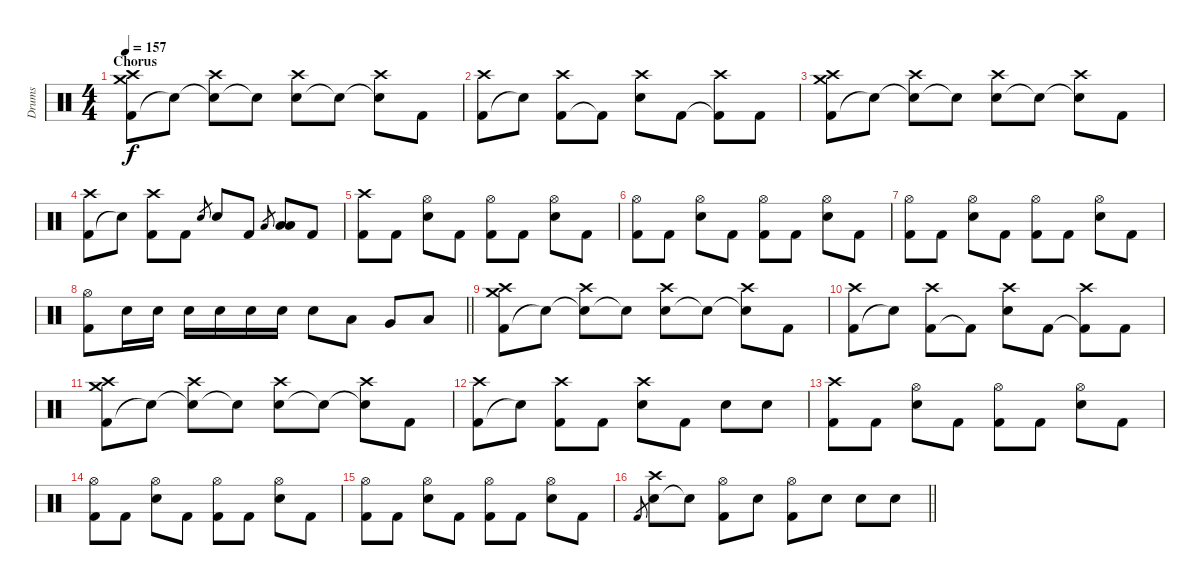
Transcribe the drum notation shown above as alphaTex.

\track ("Drums" "Drums") {instrument percussion}
\staff {score}
\articulation defaults
\ts (4 4)
\section ("" "Chorus")
\tempo 157
\clef neutral
\ks c
("Kick (hit) 2" "Crash medium (hit)" "Crash high (hit)").8{dy f} "Snare (hit)"{t}.8 ("Snare (hit)"{t} "Crash high (hit)").8 "Electric Snare (hit)"{t}.8 ("Electric Snare (hit)" "Crash high (hit)").8 "Snare (hit)"{t}.8 ("Snare (hit)"{t} "Crash high (hit)").8 "Kick (hit) 2".8 |
("Kick (hit) 2" "Crash high (hit)").8 "Snare (hit)"{t}.8 ("Kick (hit) 2" "Crash high (hit)").8 "Kick (hit) 2"{t}.8 ("Electric Snare (hit)" "Crash high (hit)").8 "Kick (hit) 2".8 ("Kick (hit) 2"{t} "Crash high (hit)").8 "Kick (hit) 2".8 |
("Kick (hit) 2" "Crash medium (hit)" "Crash high (hit)").8 "Snare (hit)"{t}.8 ("Snare (hit)"{t} "Crash high (hit)").8 "Electric Snare (hit)"{t}.8 ("Electric Snare (hit)" "Crash high (hit)").8 "Snare (hit)"{t}.8 ("Snare (hit)"{t} "Crash high (hit)").8 "Kick (hit) 2".8 |
("Kick (hit) 2" "Crash high (hit)").8 "Snare (hit)"{t}.8 ("Kick (hit) 2" "Crash high (hit)").8 "Kick (hit) 2".8 "Electric Snare (hit)".8{gr} "Electric Snare (hit)".8 "Kick (hit) 2".8 "Low Tom (hit)".8{gr} ("Low Tom (hit)" "Low Floor Tom (hit)").8 "Kick (hit) 2".8 |
("Kick (hit) 2" "Crash high (hit)").8 "Kick (hit) 2".8 ("Electric Snare (hit)" "Hi-Hat (open)").8 "Kick (hit) 2".8 ("Kick (hit) 2" "Hi-Hat (open)").8 "Kick (hit) 2".8 ("Electric Snare (hit)" "Hi-Hat (open)").8 "Kick (hit) 2".8 |
("Kick (hit) 2" "Hi-Hat (open)").8 "Kick (hit) 2".8 ("Electric Snare (hit)" "Hi-Hat (open)").8 "Kick (hit) 2".8 ("Kick (hit) 2" "Hi-Hat (open)").8 "Kick (hit) 2".8 ("Electric Snare (hit)" "Hi-Hat (open)").8 "Kick (hit) 2".8 |
("Kick (hit) 2" "Hi-Hat (open)").8 "Kick (hit) 2".8 ("Electric Snare (hit)" "Hi-Hat (open)").8 "Kick (hit) 2".8 ("Kick (hit) 2" "Hi-Hat (open)").8 "Kick (hit) 2".8 ("Electric Snare (hit)" "Hi-Hat (open)").8 "Kick (hit) 2".8 |
\barLineRight lightlight
("Kick (hit) 2" "Hi-Hat (open)").8 "Electric Snare (hit)".16 "Electric Snare (hit)".16 "Electric Snare (hit)".16 "Electric Snare (hit)".16 "Electric Snare (hit)".16 "Electric Snare (hit)".16 "Electric Snare (hit)".8 "Low Tom (hit)".8 "Very Low Tom (hit)".8 "Low Floor Tom (hit)".8 |
("Kick (hit) 2" "Crash medium (hit)" "Crash high (hit)").8 "Snare (hit)"{t}.8 ("Snare (hit)"{t} "Crash high (hit)").8 "Electric Snare (hit)"{t}.8 ("Electric Snare (hit)" "Crash high (hit)").8 "Snare (hit)"{t}.8 ("Snare (hit)"{t} "Crash high (hit)").8 "Kick (hit) 2".8 |
("Kick (hit) 2" "Crash high (hit)").8 "Snare (hit)"{t}.8 ("Kick (hit) 2" "Crash high (hit)").8 "Kick (hit) 2"{t}.8 ("Electric Snare (hit)" "Crash high (hit)").8 "Kick (hit) 2".8 ("Kick (hit) 2"{t} "Crash high (hit)").8 "Kick (hit) 2".8 |
("Kick (hit) 2" "Crash medium (hit)" "Crash high (hit)").8 "Snare (hit)"{t}.8 ("Snare (hit)"{t} "Crash high (hit)").8 "Electric Snare (hit)"{t}.8 ("Electric Snare (hit)" "Crash high (hit)").8 "Snare (hit)"{t}.8 ("Snare (hit)"{t} "Crash high (hit)").8 "Kick (hit) 2".8 |
("Kick (hit) 2" "Crash high (hit)").8 "Snare (hit)"{t}.8 ("Kick (hit) 2" "Crash high (hit)").8 "Kick (hit) 2".8 ("Electric Snare (hit)" "Crash high (hit)").8 "Kick (hit) 2".8 "Electric Snare (hit)".8 "Electric Snare (hit)".8 |
("Kick (hit) 2" "Crash high (hit)").8 "Kick (hit) 2".8 ("Electric Snare (hit)" "Hi-Hat (open)").8 "Kick (hit) 2".8 ("Kick (hit) 2" "Hi-Hat (open)").8 "Kick (hit) 2".8 ("Electric Snare (hit)" "Hi-Hat (open)").8 "Kick (hit) 2".8 |
("Kick (hit) 2" "Hi-Hat (open)").8 "Kick (hit) 2".8 ("Electric Snare (hit)" "Hi-Hat (open)").8 "Kick (hit) 2".8 ("Kick (hit) 2" "Hi-Hat (open)").8 "Kick (hit) 2".8 ("Electric Snare (hit)" "Hi-Hat (open)").8 "Kick (hit) 2".8 |
("Kick (hit) 2" "Hi-Hat (open)").8 "Kick (hit) 2".8 ("Electric Snare (hit)" "Hi-Hat (open)").8 "Kick (hit) 2".8 ("Kick (hit) 2" "Hi-Hat (open)").8 "Kick (hit) 2".8 ("Electric Snare (hit)" "Hi-Hat (open)").8 "Kick (hit) 2".8 |
\barLineRight lightlight "Kick (hit) 2".8{gr}
("Electric Snare (hit)" "Crash high (hit)").8 "Snare (hit)"{t}.8 ("Kick (hit) 2" "Hi-Hat (open)").8 "Electric Snare (hit)".8 ("Kick (hit) 2" "Hi-Hat (open)").8 "Electric Snare (hit)".8 "Electric Snare (hit)".8 "Electric Snare (hit)".8
